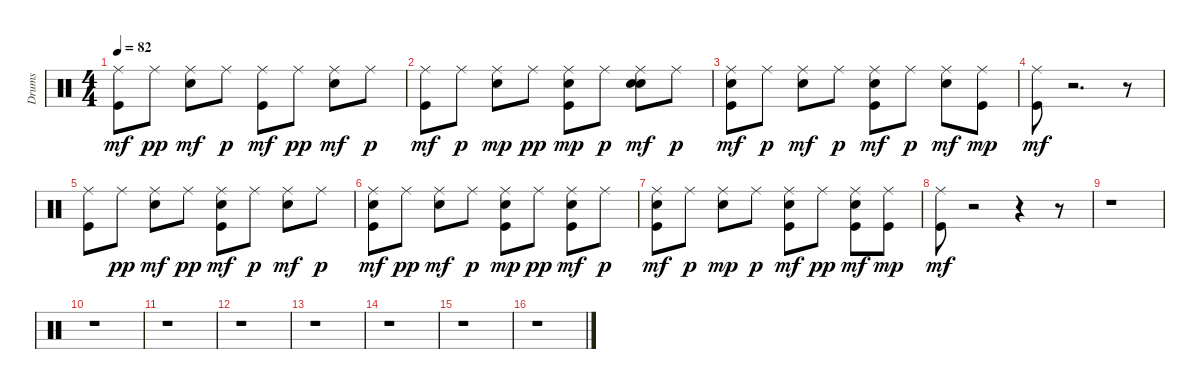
\track ("Drums" "Drums") {instrument percussion}
\staff {score}
\articulation defaults
\ts (4 4)
\tempo 82
\clef neutral
\ks c
("Ride (middle)" "Kick (hit)").8{dy mf} "Ride (middle)".8{dy pp} ("Electric Snare (hit)" "Ride (middle)").8{dy mf} "Ride (middle)".8{dy p} ("Ride (middle)" "Kick (hit)").8{dy mf} "Ride (middle)".8{dy pp} ("Ride (middle)" "Electric Snare (hit)").8{dy mf} "Ride (middle)".8{dy p} |
("Ride (middle)" "Kick (hit)").8{dy mf} "Ride (middle)".8{dy p} ("Ride (middle)" "Electric Snare (hit)").8{dy mp} "Ride (middle)".8{dy pp} ("Electric Snare (hit)" "Ride (middle)" "Kick (hit)").8{dy mp} "Ride (middle)".8{dy p} ("Electric Snare (hit)" "Ride (middle)" "Electric Snare (hit)").8{dy mf} "Ride (middle)".8{dy p} |
("Electric Snare (hit)" "Ride (middle)" "Kick (hit)").8{dy mf} "Ride (middle)".8{dy p} ("Electric Snare (hit)" "Ride (middle)").8{dy mf} "Ride (middle)".8{dy p} ("Electric Snare (hit)" "Kick (hit)" "Ride (middle)").8{dy mf} "Ride (middle)".8{dy p} ("Ride (middle)" "Electric Snare (hit)").8{dy mf} ("Ride (middle)" "Kick (hit)").8{dy mp} |
("Kick (hit)" "Ride (middle)").8{dy mf} r.2{d} r.8 |
("Ride (middle)" "Kick (hit)").8 "Ride (middle)".8{dy pp} ("Ride (middle)" "Electric Snare (hit)").8{dy mf} "Ride (middle)".8{dy pp} ("Electric Snare (hit)" "Ride (middle)" "Kick (hit)").8{dy mf} "Ride (middle)".8{dy p} ("Ride (middle)" "Electric Snare (hit)").8{dy mf} "Ride (middle)".8{dy p} |
("Electric Snare (hit)" "Ride (middle)" "Kick (hit)").8{dy mf} "Ride (middle)".8{dy pp} ("Ride (middle)" "Electric Snare (hit)").8{dy mf} "Ride (middle)".8{dy p} ("Electric Snare (hit)" "Ride (middle)" "Kick (hit)").8{dy mp} "Ride (middle)".8{dy pp} ("Electric Snare (hit)" "Ride (middle)" "Kick (hit)").8{dy mf} "Ride (middle)".8{dy p} |
("Electric Snare (hit)" "Ride (middle)" "Kick (hit)").8{dy mf} "Ride (middle)".8{dy p} ("Ride (middle)" "Electric Snare (hit)").8{dy mp} "Ride (middle)".8{dy p} ("Electric Snare (hit)" "Ride (middle)" "Kick (hit)").8{dy mf} "Ride (middle)".8{dy pp} ("Electric Snare (hit)" "Ride (middle)" "Kick (hit)").8{dy mf} ("Ride (middle)" "Kick (hit)").8{dy mp} |
("Ride (middle)" "Kick (hit)").8{dy mf} r.2 r.4 r.8 |
r.1 |
r.1 |
r.1 |
r.1 |
r.1 |
r.1 |
r.1 |
r.1
